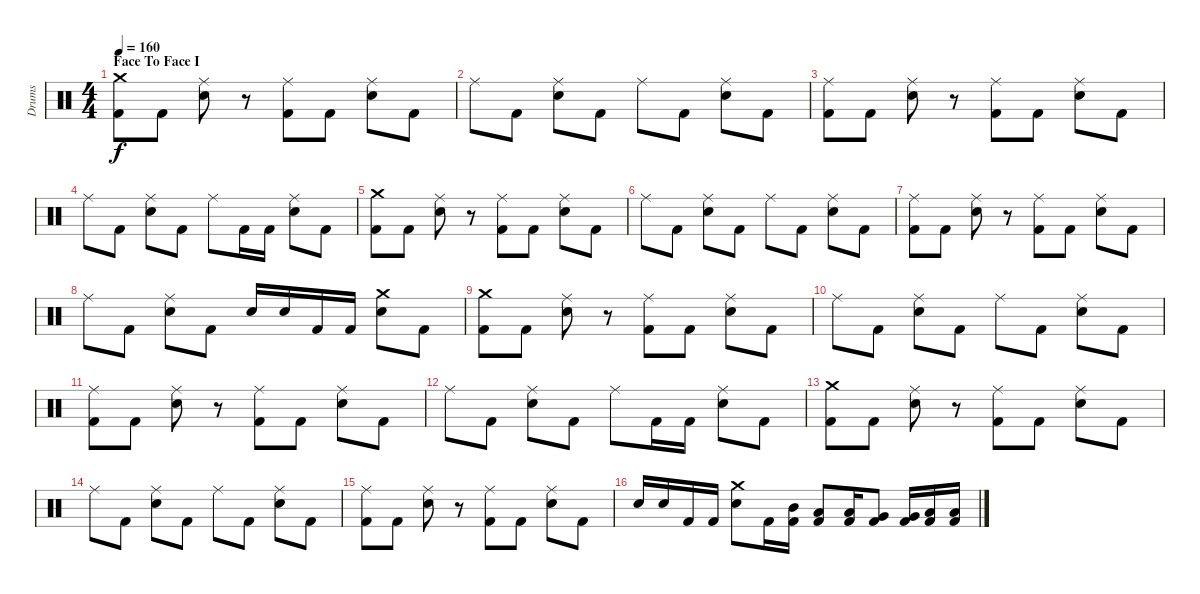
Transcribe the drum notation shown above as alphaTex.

\track ("Drums" "Drums") {instrument percussion}
\staff {score}
\articulation defaults
\ts (4 4)
\section ("" "Face To Face I")
\tempo 160
\clef neutral
\ks c
("Crash medium (hit)" "Kick (hit) 2").8{dy f} "Kick (hit) 2".8 ("Ride (middle)" "Electric Snare (hit)").8 r.8 ("Ride (middle)" "Kick (hit) 2").8 "Kick (hit) 2".8 ("Ride (middle)" "Electric Snare (hit)").8 "Kick (hit) 2".8 |
"Ride (middle)".8 "Kick (hit) 2".8 ("Ride (middle)" "Electric Snare (hit)").8 "Kick (hit) 2".8 "Ride (middle)".8 "Kick (hit) 2".8 ("Ride (middle)" "Electric Snare (hit)").8 "Kick (hit) 2".8 |
("Ride (middle)" "Kick (hit) 2").8 "Kick (hit) 2".8 ("Ride (middle)" "Electric Snare (hit)").8 r.8 ("Ride (middle)" "Kick (hit) 2").8 "Kick (hit) 2".8 ("Ride (middle)" "Electric Snare (hit)").8 "Kick (hit) 2".8 |
"Ride (middle)".8 "Kick (hit) 2".8 ("Ride (middle)" "Electric Snare (hit)").8 "Kick (hit) 2".8 "Ride (middle)".8 "Kick (hit) 2".16 "Kick (hit) 2".16 ("Ride (middle)" "Electric Snare (hit)").8 "Kick (hit) 2".8 |
("Crash medium (hit)" "Kick (hit) 2").8 "Kick (hit) 2".8 ("Ride (middle)" "Electric Snare (hit)").8 r.8 ("Ride (middle)" "Kick (hit) 2").8 "Kick (hit) 2".8 ("Ride (middle)" "Electric Snare (hit)").8 "Kick (hit) 2".8 |
"Ride (middle)".8 "Kick (hit) 2".8 ("Ride (middle)" "Electric Snare (hit)").8 "Kick (hit) 2".8 "Ride (middle)".8 "Kick (hit) 2".8 ("Ride (middle)" "Electric Snare (hit)").8 "Kick (hit) 2".8 |
("Ride (middle)" "Kick (hit) 2").8 "Kick (hit) 2".8 ("Ride (middle)" "Electric Snare (hit)").8 r.8 ("Ride (middle)" "Kick (hit) 2").8 "Kick (hit) 2".8 ("Ride (middle)" "Electric Snare (hit)").8 "Kick (hit) 2".8 |
"Ride (middle)".8 "Kick (hit) 2".8 ("Ride (middle)" "Electric Snare (hit)").8 "Kick (hit) 2".8 "Electric Snare (hit)".16 "Electric Snare (hit)".16 "Kick (hit) 2".16 "Kick (hit) 2".16 ("Crash medium (hit)" "Electric Snare (hit)").8 "Kick (hit) 2".8 |
("Crash medium (hit)" "Kick (hit) 2").8 "Kick (hit) 2".8 ("Ride (middle)" "Electric Snare (hit)").8 r.8 ("Ride (middle)" "Kick (hit) 2").8 "Kick (hit) 2".8 ("Ride (middle)" "Electric Snare (hit)").8 "Kick (hit) 2".8 |
"Ride (middle)".8 "Kick (hit) 2".8 ("Ride (middle)" "Electric Snare (hit)").8 "Kick (hit) 2".8 "Ride (middle)".8 "Kick (hit) 2".8 ("Ride (middle)" "Electric Snare (hit)").8 "Kick (hit) 2".8 |
("Ride (middle)" "Kick (hit) 2").8 "Kick (hit) 2".8 ("Ride (middle)" "Electric Snare (hit)").8 r.8 ("Ride (middle)" "Kick (hit) 2").8 "Kick (hit) 2".8 ("Ride (middle)" "Electric Snare (hit)").8 "Kick (hit) 2".8 |
"Ride (middle)".8 "Kick (hit) 2".8 ("Ride (middle)" "Electric Snare (hit)").8 "Kick (hit) 2".8 "Ride (middle)".8 "Kick (hit) 2".16 "Kick (hit) 2".16 ("Ride (middle)" "Electric Snare (hit)").8 "Kick (hit) 2".8 |
("Crash medium (hit)" "Kick (hit) 2").8 "Kick (hit) 2".8 ("Ride (middle)" "Electric Snare (hit)").8 r.8 ("Ride (middle)" "Kick (hit) 2").8 "Kick (hit) 2".8 ("Ride (middle)" "Electric Snare (hit)").8 "Kick (hit) 2".8 |
"Ride (middle)".8 "Kick (hit) 2".8 ("Ride (middle)" "Electric Snare (hit)").8 "Kick (hit) 2".8 "Ride (middle)".8 "Kick (hit) 2".8 ("Ride (middle)" "Electric Snare (hit)").8 "Kick (hit) 2".8 |
("Ride (middle)" "Kick (hit) 2").8 "Kick (hit) 2".8 ("Ride (middle)" "Electric Snare (hit)").8 r.8 ("Ride (middle)" "Kick (hit) 2").8 "Kick (hit) 2".8 ("Ride (middle)" "Electric Snare (hit)").8 "Kick (hit) 2".8 |
"Electric Snare (hit)".16 "Electric Snare (hit)".16 "Kick (hit) 2".16 "Kick (hit) 2".16 ("Crash medium (hit)" "Electric Snare (hit)").8 "Kick (hit) 2".16 ("Mid Tom (hit)" "Kick (hit) 2").16 ("Low Tom (hit)" "Kick (hit) 2").8 ("Low Tom (hit)" "Kick (hit) 2").16 ("Very Low Tom (hit)" "Kick (hit) 2").8 ("Very Low Tom (hit)" "Kick (hit) 2").16 ("Low Floor Tom (hit)" "Kick (hit) 2").16 ("Low Floor Tom (hit)" "Kick (hit) 2").16
